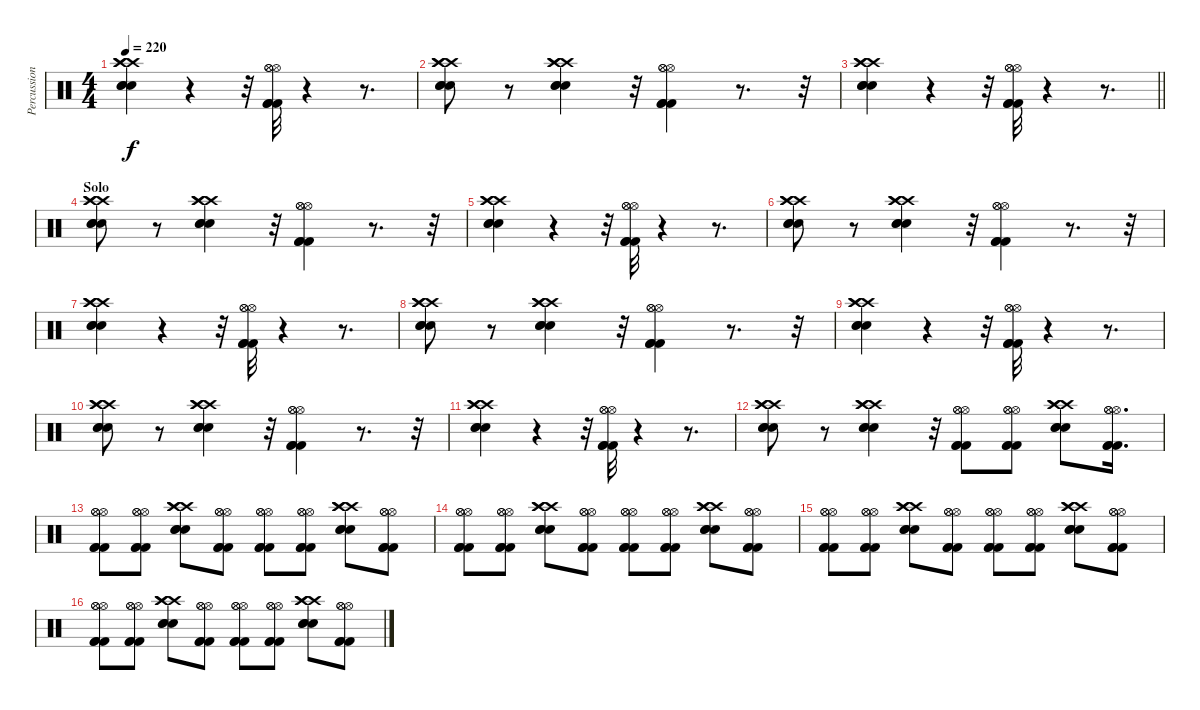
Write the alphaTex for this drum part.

\track ("Percussion" "Percussion") {instrument percussion}
\staff {score}
\articulation defaults
\ts (4 4)
\tempo 220
\clef neutral
\ks c
("Crash high (hit)" "Crash high (hit)" "Crash high (hit)" "Snare (hit) 2" "Snare (hit) 2" "Snare (hit) 2").4{dy f} r.4 r.32 ("Hi-Hat (open)" "Hi-Hat (open)" "Hi-Hat (open)" "Kick (hit) 2" "Kick (hit) 2" "Kick (hit) 2").32 r.4 r.8{d} |
("Crash high (hit)" "Crash high (hit)" "Crash high (hit)" "Snare (hit) 2" "Snare (hit) 2" "Snare (hit) 2").8 r.8 ("Crash high (hit)" "Crash high (hit)" "Crash high (hit)" "Snare (hit) 2" "Snare (hit) 2" "Snare (hit) 2").4 r.32 ("Hi-Hat (open)" "Hi-Hat (open)" "Hi-Hat (open)" "Kick (hit) 2" "Kick (hit) 2" "Kick (hit) 2").4 r.8{d} r.32 |
\barLineRight lightlight
("Crash high (hit)" "Crash high (hit)" "Crash high (hit)" "Snare (hit) 2" "Snare (hit) 2" "Snare (hit) 2").4 r.4 r.32 ("Hi-Hat (open)" "Hi-Hat (open)" "Hi-Hat (open)" "Kick (hit) 2" "Kick (hit) 2" "Kick (hit) 2").32 r.4 r.8{d} |
\section ("" "Solo")
("Crash high (hit)" "Crash high (hit)" "Crash high (hit)" "Snare (hit) 2" "Snare (hit) 2" "Snare (hit) 2").8 r.8 ("Crash high (hit)" "Crash high (hit)" "Crash high (hit)" "Snare (hit) 2" "Snare (hit) 2" "Snare (hit) 2").4 r.32 ("Hi-Hat (open)" "Hi-Hat (open)" "Hi-Hat (open)" "Kick (hit) 2" "Kick (hit) 2" "Kick (hit) 2").4 r.8{d} r.32 |
("Crash high (hit)" "Crash high (hit)" "Crash high (hit)" "Snare (hit) 2" "Snare (hit) 2" "Snare (hit) 2").4 r.4 r.32 ("Hi-Hat (open)" "Hi-Hat (open)" "Hi-Hat (open)" "Kick (hit) 2" "Kick (hit) 2" "Kick (hit) 2").32 r.4 r.8{d} |
("Crash high (hit)" "Crash high (hit)" "Crash high (hit)" "Snare (hit) 2" "Snare (hit) 2" "Snare (hit) 2").8 r.8 ("Crash high (hit)" "Crash high (hit)" "Crash high (hit)" "Snare (hit) 2" "Snare (hit) 2" "Snare (hit) 2").4 r.32 ("Hi-Hat (open)" "Hi-Hat (open)" "Hi-Hat (open)" "Kick (hit) 2" "Kick (hit) 2" "Kick (hit) 2").4 r.8{d} r.32 |
("Crash high (hit)" "Crash high (hit)" "Crash high (hit)" "Snare (hit) 2" "Snare (hit) 2" "Snare (hit) 2").4 r.4 r.32 ("Hi-Hat (open)" "Hi-Hat (open)" "Hi-Hat (open)" "Kick (hit) 2" "Kick (hit) 2" "Kick (hit) 2").32 r.4 r.8{d} |
("Crash high (hit)" "Crash high (hit)" "Crash high (hit)" "Snare (hit) 2" "Snare (hit) 2" "Snare (hit) 2").8 r.8 ("Crash high (hit)" "Crash high (hit)" "Crash high (hit)" "Snare (hit) 2" "Snare (hit) 2" "Snare (hit) 2").4 r.32 ("Hi-Hat (open)" "Hi-Hat (open)" "Hi-Hat (open)" "Kick (hit) 2" "Kick (hit) 2" "Kick (hit) 2").4 r.8{d} r.32 |
("Crash high (hit)" "Crash high (hit)" "Crash high (hit)" "Snare (hit) 2" "Snare (hit) 2" "Snare (hit) 2").4 r.4 r.32 ("Hi-Hat (open)" "Hi-Hat (open)" "Hi-Hat (open)" "Kick (hit) 2" "Kick (hit) 2" "Kick (hit) 2").32 r.4 r.8{d} |
("Crash high (hit)" "Crash high (hit)" "Crash high (hit)" "Snare (hit) 2" "Snare (hit) 2" "Snare (hit) 2").8 r.8 ("Crash high (hit)" "Crash high (hit)" "Crash high (hit)" "Snare (hit) 2" "Snare (hit) 2" "Snare (hit) 2").4 r.32 ("Hi-Hat (open)" "Hi-Hat (open)" "Hi-Hat (open)" "Kick (hit) 2" "Kick (hit) 2" "Kick (hit) 2").4 r.8{d} r.32 |
("Crash high (hit)" "Crash high (hit)" "Crash high (hit)" "Snare (hit) 2" "Snare (hit) 2" "Snare (hit) 2").4 r.4 r.32 ("Hi-Hat (open)" "Hi-Hat (open)" "Hi-Hat (open)" "Kick (hit) 2" "Kick (hit) 2" "Kick (hit) 2").32 r.4 r.8{d} |
("Crash high (hit)" "Crash high (hit)" "Crash high (hit)" "Snare (hit) 2" "Snare (hit) 2" "Snare (hit) 2").8 r.8 ("Crash high (hit)" "Crash high (hit)" "Crash high (hit)" "Snare (hit) 2" "Snare (hit) 2" "Snare (hit) 2").4 r.32 ("Hi-Hat (open)" "Hi-Hat (open)" "Hi-Hat (open)" "Kick (hit) 2" "Kick (hit) 2" "Kick (hit) 2").8 ("Hi-Hat (open)" "Hi-Hat (open)" "Hi-Hat (open)" "Kick (hit) 2" "Kick (hit) 2" "Kick (hit) 2").8 ("Crash high (hit)" "Crash high (hit)" "Crash high (hit)" "Snare (hit) 2" "Snare (hit) 2" "Snare (hit) 2").8 ("Hi-Hat (open)" "Hi-Hat (open)" "Hi-Hat (open)" "Kick (hit) 2" "Kick (hit) 2" "Kick (hit) 2").16{d} |
("Hi-Hat (open)" "Hi-Hat (open)" "Hi-Hat (open)" "Kick (hit) 2" "Kick (hit) 2" "Kick (hit) 2").8 ("Hi-Hat (open)" "Hi-Hat (open)" "Hi-Hat (open)" "Kick (hit) 2" "Kick (hit) 2" "Kick (hit) 2").8 ("Crash high (hit)" "Crash high (hit)" "Crash high (hit)" "Snare (hit) 2" "Snare (hit) 2" "Snare (hit) 2").8 ("Hi-Hat (open)" "Hi-Hat (open)" "Hi-Hat (open)" "Kick (hit) 2" "Kick (hit) 2" "Kick (hit) 2").8 ("Hi-Hat (open)" "Hi-Hat (open)" "Hi-Hat (open)" "Kick (hit) 2" "Kick (hit) 2" "Kick (hit) 2").8 ("Hi-Hat (open)" "Hi-Hat (open)" "Hi-Hat (open)" "Kick (hit) 2" "Kick (hit) 2" "Kick (hit) 2").8 ("Crash high (hit)" "Crash high (hit)" "Crash high (hit)" "Snare (hit) 2" "Snare (hit) 2" "Snare (hit) 2").8 ("Hi-Hat (open)" "Hi-Hat (open)" "Hi-Hat (open)" "Kick (hit) 2" "Kick (hit) 2" "Kick (hit) 2").8 |
("Hi-Hat (open)" "Hi-Hat (open)" "Hi-Hat (open)" "Kick (hit) 2" "Kick (hit) 2" "Kick (hit) 2").8 ("Hi-Hat (open)" "Hi-Hat (open)" "Hi-Hat (open)" "Kick (hit) 2" "Kick (hit) 2" "Kick (hit) 2").8 ("Crash high (hit)" "Crash high (hit)" "Crash high (hit)" "Snare (hit) 2" "Snare (hit) 2" "Snare (hit) 2").8 ("Hi-Hat (open)" "Hi-Hat (open)" "Hi-Hat (open)" "Kick (hit) 2" "Kick (hit) 2" "Kick (hit) 2").8 ("Hi-Hat (open)" "Hi-Hat (open)" "Hi-Hat (open)" "Kick (hit) 2" "Kick (hit) 2" "Kick (hit) 2").8 ("Hi-Hat (open)" "Hi-Hat (open)" "Hi-Hat (open)" "Kick (hit) 2" "Kick (hit) 2" "Kick (hit) 2").8 ("Crash high (hit)" "Crash high (hit)" "Crash high (hit)" "Snare (hit) 2" "Snare (hit) 2" "Snare (hit) 2").8 ("Hi-Hat (open)" "Hi-Hat (open)" "Hi-Hat (open)" "Kick (hit) 2" "Kick (hit) 2" "Kick (hit) 2").8 |
("Hi-Hat (open)" "Hi-Hat (open)" "Hi-Hat (open)" "Kick (hit) 2" "Kick (hit) 2" "Kick (hit) 2").8 ("Hi-Hat (open)" "Hi-Hat (open)" "Hi-Hat (open)" "Kick (hit) 2" "Kick (hit) 2" "Kick (hit) 2").8 ("Crash high (hit)" "Crash high (hit)" "Crash high (hit)" "Snare (hit) 2" "Snare (hit) 2" "Snare (hit) 2").8 ("Hi-Hat (open)" "Hi-Hat (open)" "Hi-Hat (open)" "Kick (hit) 2" "Kick (hit) 2" "Kick (hit) 2").8 ("Hi-Hat (open)" "Hi-Hat (open)" "Hi-Hat (open)" "Kick (hit) 2" "Kick (hit) 2" "Kick (hit) 2").8 ("Hi-Hat (open)" "Hi-Hat (open)" "Hi-Hat (open)" "Kick (hit) 2" "Kick (hit) 2" "Kick (hit) 2").8 ("Crash high (hit)" "Crash high (hit)" "Crash high (hit)" "Snare (hit) 2" "Snare (hit) 2" "Snare (hit) 2").8 ("Hi-Hat (open)" "Hi-Hat (open)" "Hi-Hat (open)" "Kick (hit) 2" "Kick (hit) 2" "Kick (hit) 2").8 |
("Hi-Hat (open)" "Hi-Hat (open)" "Hi-Hat (open)" "Kick (hit) 2" "Kick (hit) 2" "Kick (hit) 2").8 ("Hi-Hat (open)" "Hi-Hat (open)" "Hi-Hat (open)" "Kick (hit) 2" "Kick (hit) 2" "Kick (hit) 2").8 ("Crash high (hit)" "Crash high (hit)" "Crash high (hit)" "Snare (hit) 2" "Snare (hit) 2" "Snare (hit) 2").8 ("Hi-Hat (open)" "Hi-Hat (open)" "Hi-Hat (open)" "Kick (hit) 2" "Kick (hit) 2" "Kick (hit) 2").8 ("Hi-Hat (open)" "Hi-Hat (open)" "Hi-Hat (open)" "Kick (hit) 2" "Kick (hit) 2" "Kick (hit) 2").8 ("Hi-Hat (open)" "Hi-Hat (open)" "Hi-Hat (open)" "Kick (hit) 2" "Kick (hit) 2" "Kick (hit) 2").8 ("Crash high (hit)" "Crash high (hit)" "Crash high (hit)" "Snare (hit) 2" "Snare (hit) 2" "Snare (hit) 2").8 ("Hi-Hat (open)" "Hi-Hat (open)" "Hi-Hat (open)" "Kick (hit) 2" "Kick (hit) 2" "Kick (hit) 2").8
